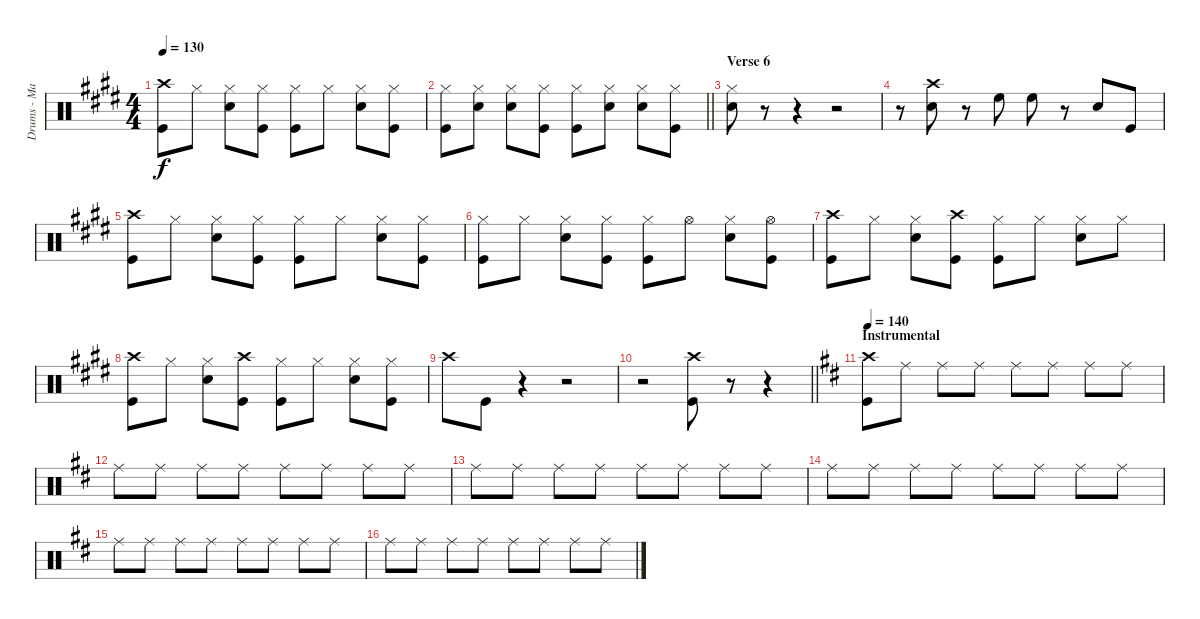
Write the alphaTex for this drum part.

\track ("Drums - Matt Helders" "Drums - Ma") {instrument percussion}
\staff {score}
\articulation defaults
\ts (4 4)
\tempo 130
\clef neutral
\ks e
("Crash high (hit)" "Kick (hit)").8{dy f} "Hi-Hat (closed)".8 ("Hi-Hat (closed)" "Snare (hit) 2").8 ("Hi-Hat (closed)" "Kick (hit)").8 ("Hi-Hat (closed)" "Kick (hit)").8 "Hi-Hat (closed)".8 ("Hi-Hat (closed)" "Snare (hit) 2").8 ("Hi-Hat (closed)" "Kick (hit)").8 |
\barLineRight lightlight
("Hi-Hat (closed)" "Kick (hit)").8 ("Hi-Hat (closed)" "Snare (hit) 2").8 ("Hi-Hat (closed)" "Snare (hit) 2").8 ("Hi-Hat (closed)" "Kick (hit)").8 ("Hi-Hat (closed)" "Kick (hit)").8 ("Hi-Hat (closed)" "Snare (hit) 2").8 ("Hi-Hat (closed)" "Snare (hit) 2").8 ("Hi-Hat (closed)" "Kick (hit)").8 |
\section ("" "Verse 6")
("Hi-Hat (closed)" "Snare (hit) 2").8 r.8 r.4 r.2 |
r.8 ("Crash high (hit)" "Snare (hit) 2").8 r.8 "High Floor Tom (hit)".8 "High Floor Tom (hit)".8 r.8 "Snare (hit) 2".8 "Kick (hit)".8 |
("Crash high (hit)" "Kick (hit)").8 "Hi-Hat (closed)".8 ("Hi-Hat (closed)" "Snare (hit) 2").8 ("Hi-Hat (closed)" "Kick (hit)").8 ("Hi-Hat (closed)" "Kick (hit)").8 "Hi-Hat (closed)".8 ("Hi-Hat (closed)" "Snare (hit) 2").8 ("Hi-Hat (closed)" "Kick (hit)").8 |
("Hi-Hat (closed)" "Kick (hit)").8 "Hi-Hat (closed)".8 ("Hi-Hat (closed)" "Snare (hit) 2").8 ("Hi-Hat (closed)" "Kick (hit)").8 ("Hi-Hat (closed)" "Kick (hit)").8 "Hi-Hat (open)".8 ("Hi-Hat (closed)" "Snare (hit) 2").8 ("Hi-Hat (open)" "Kick (hit)").8 |
("Crash high (hit)" "Kick (hit)").8 "Hi-Hat (closed)".8 ("Hi-Hat (closed)" "Snare (hit) 2").8 ("Crash high (hit)" "Kick (hit)").8 ("Hi-Hat (closed)" "Kick (hit)").8 "Hi-Hat (closed)".8 ("Hi-Hat (closed)" "Snare (hit) 2").8 "Hi-Hat (closed)".8 |
("Crash high (hit)" "Kick (hit)").8 "Hi-Hat (closed)".8 ("Hi-Hat (closed)" "Snare (hit) 2").8 ("Crash high (hit)" "Kick (hit)").8 ("Hi-Hat (closed)" "Kick (hit)").8 "Hi-Hat (closed)".8 ("Hi-Hat (closed)" "Snare (hit) 2").8 ("Hi-Hat (closed)" "Kick (hit)").8 |
"Crash high (hit)".8 "Kick (hit)".8 r.4 r.2 |
\barLineRight lightlight
r.2 ("Crash high (hit)" "Kick (hit)").8 r.8 r.4 |
\section ("" "Instrumental")
\tempo 140
\ks d
("Crash high (hit)" "Kick (hit)").8 "Ride (middle)".8 "Ride (middle)".8 "Ride (middle)".8 "Ride (middle)".8 "Ride (middle)".8 "Ride (middle)".8 "Ride (middle)".8 |
"Ride (middle)".8 "Ride (middle)".8 "Ride (middle)".8 "Ride (middle)".8 "Ride (middle)".8 "Ride (middle)".8 "Ride (middle)".8 "Ride (middle)".8 |
"Ride (middle)".8 "Ride (middle)".8 "Ride (middle)".8 "Ride (middle)".8 "Ride (middle)".8 "Ride (middle)".8 "Ride (middle)".8 "Ride (middle)".8 |
"Ride (middle)".8 "Ride (middle)".8 "Ride (middle)".8 "Ride (middle)".8 "Ride (middle)".8 "Ride (middle)".8 "Ride (middle)".8 "Ride (middle)".8 |
"Ride (middle)".8 "Ride (middle)".8 "Ride (middle)".8 "Ride (middle)".8 "Ride (middle)".8 "Ride (middle)".8 "Ride (middle)".8 "Ride (middle)".8 |
"Ride (middle)".8 "Ride (middle)".8 "Ride (middle)".8 "Ride (middle)".8 "Ride (middle)".8 "Ride (middle)".8 "Ride (middle)".8 "Ride (middle)".8
